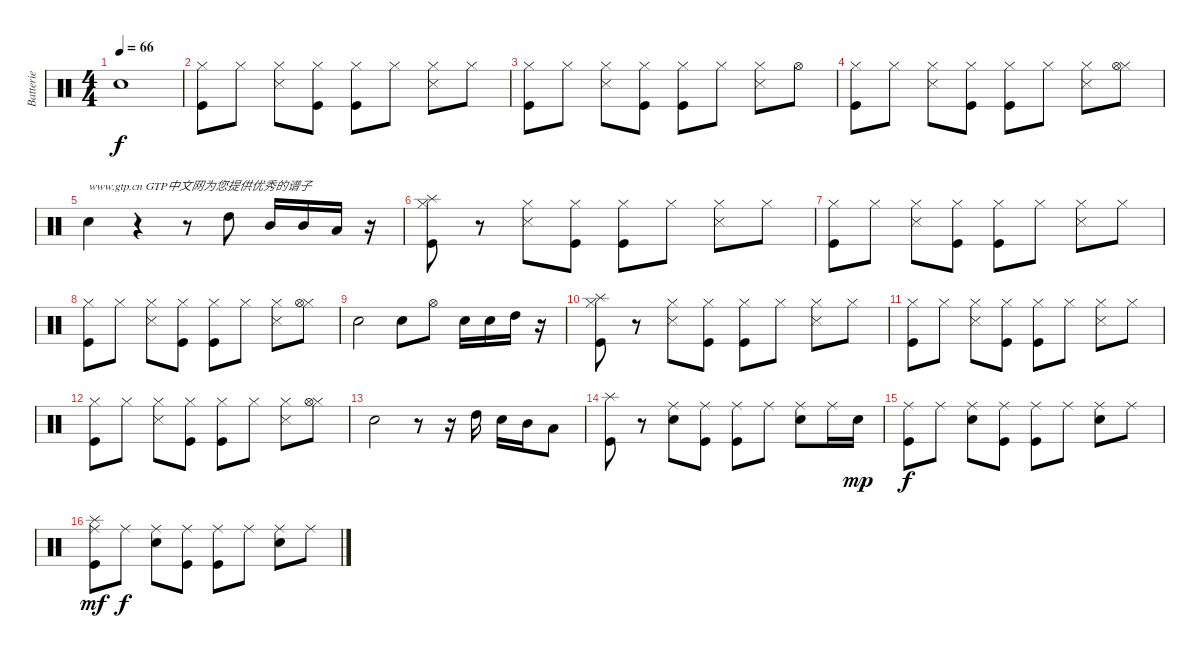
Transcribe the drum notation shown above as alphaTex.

\track ("Batterie" "Batterie") {instrument percussion}
\staff {score}
\articulation defaults
\ts (4 4)
\tempo 66
\clef neutral
\ks c "Snare (hit) 2".1{dy f}
|
("Hi-Hat (closed)" "Kick (hit)").8 "Hi-Hat (closed)".8 ("Hi-Hat (closed)" "Snare (side stick) 3").8 ("Hi-Hat (closed)" "Kick (hit)").8 ("Hi-Hat (closed)" "Kick (hit)").8 "Hi-Hat (closed)".8 ("Hi-Hat (closed)" "Snare (side stick) 3").8 "Hi-Hat (closed)".8 |
("Hi-Hat (closed)" "Kick (hit)").8 "Hi-Hat (closed)".8 ("Hi-Hat (closed)" "Snare (side stick) 3").8 ("Hi-Hat (closed)" "Kick (hit)").8 ("Hi-Hat (closed)" "Kick (hit)").8 "Hi-Hat (closed)".8 ("Hi-Hat (closed)" "Snare (side stick) 3").8 "Hi-Hat (open)".8 |
("Hi-Hat (closed)" "Kick (hit)").8 "Hi-Hat (closed)".8 ("Hi-Hat (closed)" "Snare (side stick) 3").8 ("Hi-Hat (closed)" "Kick (hit)").8 ("Hi-Hat (closed)" "Kick (hit)").8 "Hi-Hat (closed)".8 ("Hi-Hat (closed)" "Snare (side stick) 3").8 ("Hi-Hat (closed)" "Hi-Hat (open)").8 |
"Snare (hit) 2".4{txt "www.gtp.cn GTP中文网为您提供优秀的谱子"} r.4 r.8 "High Tom (hit)".8 "Mid Tom (hit)".16 "Mid Tom (hit)".16 "Low Tom (hit)".16 r.16 |
("Hi-Hat (closed)" "Splash (hit)" "Kick (hit)").8 r.8 ("Hi-Hat (closed)" "Snare (side stick) 3").8 ("Hi-Hat (closed)" "Kick (hit)").8 ("Hi-Hat (closed)" "Kick (hit)").8 "Hi-Hat (closed)".8 ("Hi-Hat (closed)" "Snare (side stick) 3").8 "Hi-Hat (closed)".8 |
("Hi-Hat (closed)" "Kick (hit)").8 "Hi-Hat (closed)".8 ("Hi-Hat (closed)" "Snare (side stick) 3").8 ("Hi-Hat (closed)" "Kick (hit)").8 ("Hi-Hat (closed)" "Kick (hit)").8 "Hi-Hat (closed)".8 ("Hi-Hat (closed)" "Snare (side stick) 3").8 "Hi-Hat (closed)".8 |
("Hi-Hat (closed)" "Kick (hit)").8 "Hi-Hat (closed)".8 ("Hi-Hat (closed)" "Snare (side stick) 3").8 ("Hi-Hat (closed)" "Kick (hit)").8 ("Hi-Hat (closed)" "Kick (hit)").8 "Hi-Hat (closed)".8 ("Hi-Hat (closed)" "Snare (side stick) 3").8 ("Hi-Hat (closed)" "Hi-Hat (open)").8 |
"Snare (hit) 2".2 "Snare (hit) 2".8 "Hi-Hat (open)".8 "Snare (hit) 2".16 "Snare (hit) 2".16 "High Tom (hit)".16 r.16 |
("Hi-Hat (closed)" "Splash (hit)" "Kick (hit)").8 r.8 ("Hi-Hat (closed)" "Snare (side stick) 3").8 ("Hi-Hat (closed)" "Kick (hit)").8 ("Hi-Hat (closed)" "Kick (hit)").8 "Hi-Hat (closed)".8 ("Hi-Hat (closed)" "Snare (side stick) 3").8 "Hi-Hat (closed)".8 |
("Hi-Hat (closed)" "Kick (hit)").8 "Hi-Hat (closed)".8 ("Hi-Hat (closed)" "Snare (side stick) 3").8 ("Hi-Hat (closed)" "Kick (hit)").8 ("Hi-Hat (closed)" "Kick (hit)").8 "Hi-Hat (closed)".8 ("Hi-Hat (closed)" "Snare (side stick) 3").8 "Hi-Hat (closed)".8 |
("Hi-Hat (closed)" "Kick (hit)").8 "Hi-Hat (closed)".8 ("Hi-Hat (closed)" "Snare (side stick) 3").8 ("Hi-Hat (closed)" "Kick (hit)").8 ("Hi-Hat (closed)" "Kick (hit)").8 "Hi-Hat (closed)".8 ("Hi-Hat (closed)" "Snare (side stick) 3").8 ("Hi-Hat (closed)" "Hi-Hat (open)").8 |
"Snare (hit) 2".2 r.8 r.16 "High Tom (hit)".16 "Snare (hit) 2".16 "Mid Tom (hit)".16 "Low Tom (hit)".8 |
("Splash (hit)" "Kick (hit)").8 r.8 ("Ride (middle)" "Snare (hit) 2").8 ("Ride (middle)" "Kick (hit)").8 ("Ride (middle)" "Kick (hit)").8 "Ride (middle)".8 ("Ride (middle)" "Snare (hit) 2").8 "Ride (middle)".16 "Snare (hit) 2".16{dy mp} |
("Ride (middle)" "Kick (hit)").8{dy f} "Ride (middle)".8 ("Ride (middle)" "Snare (hit) 2").8 ("Ride (middle)" "Kick (hit)").8 ("Ride (middle)" "Kick (hit)").8 "Ride (middle)".8 ("Ride (middle)" "Snare (hit) 2").8 "Ride (middle)".8 |
("Ride (middle)" "Splash (hit)" "Kick (hit)").8{dy mf} "Ride (middle)".8{dy f} ("Ride (middle)" "Snare (hit) 2").8 ("Ride (middle)" "Kick (hit)").8 ("Ride (middle)" "Kick (hit)").8 "Ride (middle)".8 ("Ride (middle)" "Snare (hit) 2").8 "Ride (middle)".8
